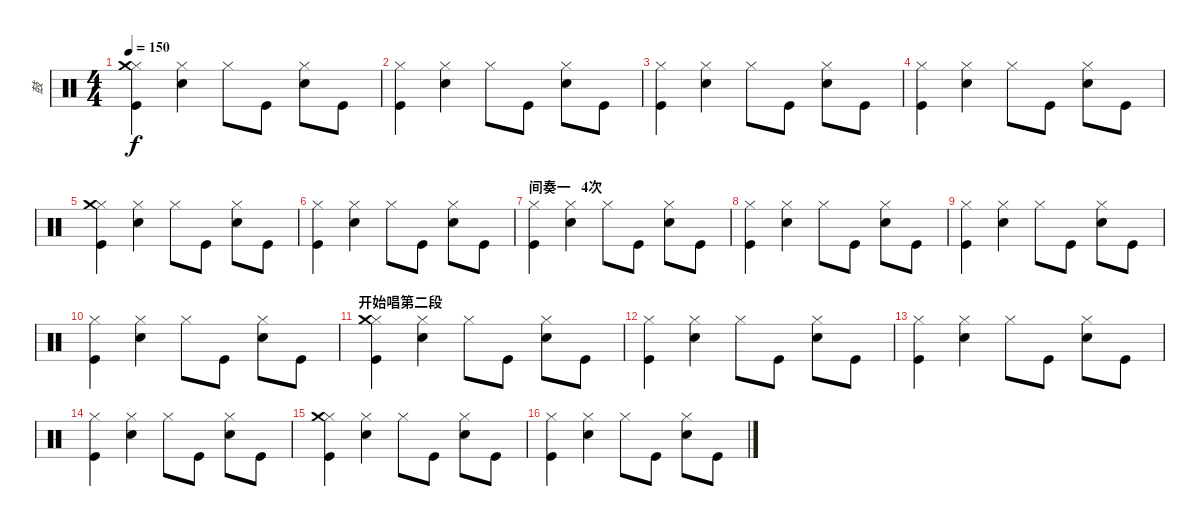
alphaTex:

\track ("鼓" "鼓") {instrument percussion}
\staff {score}
\articulation defaults
\ts (4 4)
\tempo 150
\clef neutral
\ks c
("Kick (hit)" "Hi-Hat (closed)" "Crash medium (hit)").4{dy f} ("Snare (hit) 2" "Hi-Hat (closed)").4 "Hi-Hat (closed)".8 "Kick (hit)".8 ("Snare (hit) 2" "Hi-Hat (closed)").8 "Kick (hit)".8 |
("Kick (hit)" "Hi-Hat (closed)").4 ("Snare (hit) 2" "Hi-Hat (closed)").4 "Hi-Hat (closed)".8 "Kick (hit)".8 ("Snare (hit) 2" "Hi-Hat (closed)").8 "Kick (hit)".8 |
("Kick (hit)" "Hi-Hat (closed)").4 ("Snare (hit) 2" "Hi-Hat (closed)").4 "Hi-Hat (closed)".8 "Kick (hit)".8 ("Snare (hit) 2" "Hi-Hat (closed)").8 "Kick (hit)".8 |
("Kick (hit)" "Hi-Hat (closed)").4 ("Snare (hit) 2" "Hi-Hat (closed)").4 "Hi-Hat (closed)".8 "Kick (hit)".8 ("Snare (hit) 2" "Hi-Hat (closed)").8 "Kick (hit)".8 |
("Kick (hit)" "Hi-Hat (closed)" "Crash medium (hit)").4 ("Snare (hit) 2" "Hi-Hat (closed)").4 "Hi-Hat (closed)".8 "Kick (hit)".8 ("Snare (hit) 2" "Hi-Hat (closed)").8 "Kick (hit)".8 |
("Kick (hit)" "Hi-Hat (closed)").4 ("Snare (hit) 2" "Hi-Hat (closed)").4 "Hi-Hat (closed)".8 "Kick (hit)".8 ("Snare (hit) 2" "Hi-Hat (closed)").8 "Kick (hit)".8 |
\section ("" "间奏一   4次")
("Kick (hit)" "Hi-Hat (closed)").4 ("Snare (hit) 2" "Hi-Hat (closed)").4 "Hi-Hat (closed)".8 "Kick (hit)".8 ("Snare (hit) 2" "Hi-Hat (closed)").8 "Kick (hit)".8 |
("Kick (hit)" "Hi-Hat (closed)").4 ("Snare (hit) 2" "Hi-Hat (closed)").4 "Hi-Hat (closed)".8 "Kick (hit)".8 ("Snare (hit) 2" "Hi-Hat (closed)").8 "Kick (hit)".8 |
("Kick (hit)" "Hi-Hat (closed)").4 ("Snare (hit) 2" "Hi-Hat (closed)").4 "Hi-Hat (closed)".8 "Kick (hit)".8 ("Snare (hit) 2" "Hi-Hat (closed)").8 "Kick (hit)".8 |
("Kick (hit)" "Hi-Hat (closed)").4 ("Snare (hit) 2" "Hi-Hat (closed)").4 "Hi-Hat (closed)".8 "Kick (hit)".8 ("Snare (hit) 2" "Hi-Hat (closed)").8 "Kick (hit)".8 |
\section ("" "开始唱第二段")
("Kick (hit)" "Hi-Hat (closed)" "Crash medium (hit)").4 ("Snare (hit) 2" "Hi-Hat (closed)").4 "Hi-Hat (closed)".8 "Kick (hit)".8 ("Snare (hit) 2" "Hi-Hat (closed)").8 "Kick (hit)".8 |
("Kick (hit)" "Hi-Hat (closed)").4 ("Snare (hit) 2" "Hi-Hat (closed)").4 "Hi-Hat (closed)".8 "Kick (hit)".8 ("Snare (hit) 2" "Hi-Hat (closed)").8 "Kick (hit)".8 |
("Kick (hit)" "Hi-Hat (closed)").4 ("Snare (hit) 2" "Hi-Hat (closed)").4 "Hi-Hat (closed)".8 "Kick (hit)".8 ("Snare (hit) 2" "Hi-Hat (closed)").8 "Kick (hit)".8 |
("Kick (hit)" "Hi-Hat (closed)").4 ("Snare (hit) 2" "Hi-Hat (closed)").4 "Hi-Hat (closed)".8 "Kick (hit)".8 ("Snare (hit) 2" "Hi-Hat (closed)").8 "Kick (hit)".8 |
("Kick (hit)" "Hi-Hat (closed)" "Crash medium (hit)").4 ("Snare (hit) 2" "Hi-Hat (closed)").4 "Hi-Hat (closed)".8 "Kick (hit)".8 ("Snare (hit) 2" "Hi-Hat (closed)").8 "Kick (hit)".8 |
("Kick (hit)" "Hi-Hat (closed)").4 ("Snare (hit) 2" "Hi-Hat (closed)").4 "Hi-Hat (closed)".8 "Kick (hit)".8 ("Snare (hit) 2" "Hi-Hat (closed)").8 "Kick (hit)".8
